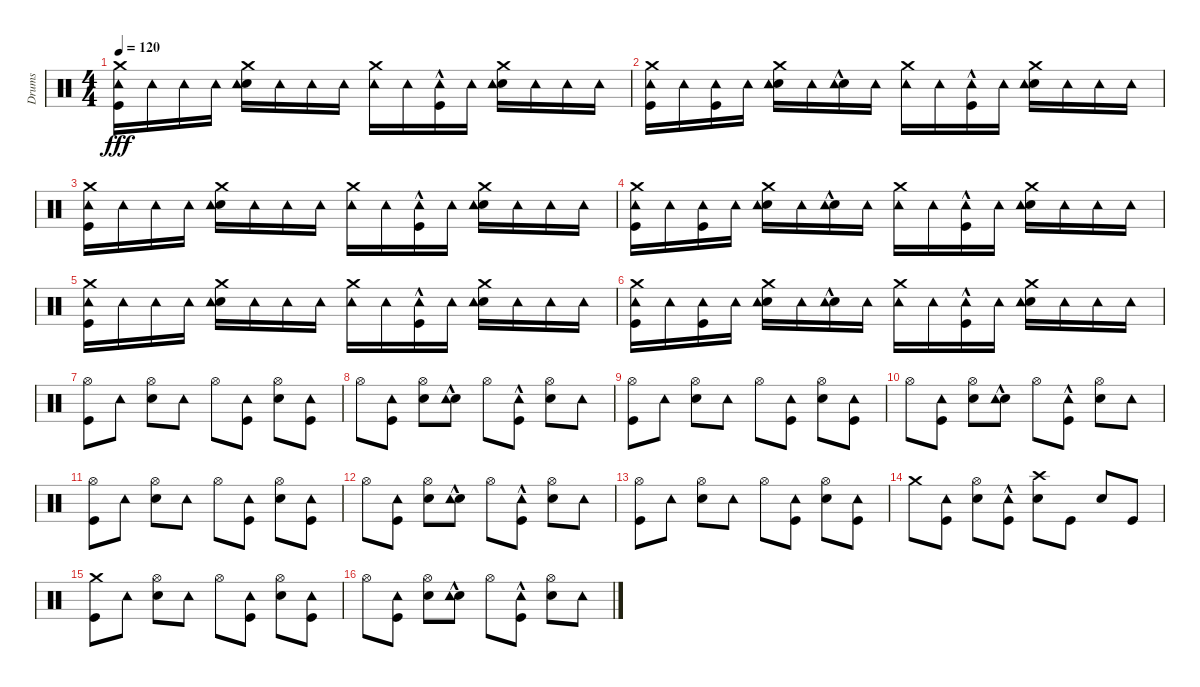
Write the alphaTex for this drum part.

\track ("Drums" "Drums") {instrument percussion}
\staff {score}
\articulation defaults
\ts (4 4)
\tempo 120
\clef neutral
\ks c
("Kick (hit)" "Tambourine (hit)" "Crash medium (hit)").16{dy fff} "Tambourine (hit)".16 "Tambourine (hit)".16 "Tambourine (hit)".16 ("Snare (hit) 2" "Tambourine (hit)" "Crash medium (hit)").16 "Tambourine (hit)".16 "Tambourine (hit)".16 "Tambourine (hit)".16 ("Tambourine (hit)" "Crash medium (hit)").16 "Tambourine (hit)".16 ("Kick (hit)"{hac} "Tambourine (hit)").16 "Tambourine (hit)".16 ("Snare (hit) 2" "Tambourine (hit)" "Crash medium (hit)").16 "Tambourine (hit)".16 "Tambourine (hit)".16 "Tambourine (hit)".16 |
("Kick (hit)" "Tambourine (hit)" "Crash medium (hit)").16 "Tambourine (hit)".16 ("Kick (hit)" "Tambourine (hit)").16 "Tambourine (hit)".16 ("Snare (hit) 2" "Tambourine (hit)" "Crash medium (hit)").16 "Tambourine (hit)".16 ("Snare (hit) 2"{hac} "Tambourine (hit)").16 "Tambourine (hit)".16 ("Tambourine (hit)" "Crash medium (hit)").16 "Tambourine (hit)".16 ("Kick (hit)"{hac} "Tambourine (hit)").16 "Tambourine (hit)".16 ("Snare (hit) 2" "Tambourine (hit)" "Crash medium (hit)").16 "Tambourine (hit)".16 "Tambourine (hit)".16 "Tambourine (hit)".16 |
("Kick (hit)" "Tambourine (hit)" "Crash medium (hit)").16 "Tambourine (hit)".16 "Tambourine (hit)".16 "Tambourine (hit)".16 ("Snare (hit) 2" "Tambourine (hit)" "Crash medium (hit)").16 "Tambourine (hit)".16 "Tambourine (hit)".16 "Tambourine (hit)".16 ("Tambourine (hit)" "Crash medium (hit)").16 "Tambourine (hit)".16 ("Kick (hit)"{hac} "Tambourine (hit)").16 "Tambourine (hit)".16 ("Snare (hit) 2" "Tambourine (hit)" "Crash medium (hit)").16 "Tambourine (hit)".16 "Tambourine (hit)".16 "Tambourine (hit)".16 |
("Kick (hit)" "Tambourine (hit)" "Crash medium (hit)").16 "Tambourine (hit)".16 ("Kick (hit)" "Tambourine (hit)").16 "Tambourine (hit)".16 ("Snare (hit) 2" "Tambourine (hit)" "Crash medium (hit)").16 "Tambourine (hit)".16 ("Snare (hit) 2"{hac} "Tambourine (hit)").16 "Tambourine (hit)".16 ("Tambourine (hit)" "Crash medium (hit)").16 "Tambourine (hit)".16 ("Kick (hit)"{hac} "Tambourine (hit)").16 "Tambourine (hit)".16 ("Snare (hit) 2" "Tambourine (hit)" "Crash medium (hit)").16 "Tambourine (hit)".16 "Tambourine (hit)".16 "Tambourine (hit)".16 |
("Kick (hit)" "Tambourine (hit)" "Crash medium (hit)").16 "Tambourine (hit)".16 "Tambourine (hit)".16 "Tambourine (hit)".16 ("Snare (hit) 2" "Tambourine (hit)" "Crash medium (hit)").16 "Tambourine (hit)".16 "Tambourine (hit)".16 "Tambourine (hit)".16 ("Tambourine (hit)" "Crash medium (hit)").16 "Tambourine (hit)".16 ("Kick (hit)"{hac} "Tambourine (hit)").16 "Tambourine (hit)".16 ("Snare (hit) 2" "Tambourine (hit)" "Crash medium (hit)").16 "Tambourine (hit)".16 "Tambourine (hit)".16 "Tambourine (hit)".16 |
("Kick (hit)" "Tambourine (hit)" "Crash medium (hit)").16 "Tambourine (hit)".16 ("Kick (hit)" "Tambourine (hit)").16 "Tambourine (hit)".16 ("Snare (hit) 2" "Tambourine (hit)" "Crash medium (hit)").16 "Tambourine (hit)".16 ("Snare (hit) 2"{hac} "Tambourine (hit)").16 "Tambourine (hit)".16 ("Tambourine (hit)" "Crash medium (hit)").16 "Tambourine (hit)".16 ("Kick (hit)"{hac} "Tambourine (hit)").16 "Tambourine (hit)".16 ("Snare (hit) 2" "Tambourine (hit)" "Crash medium (hit)").16 "Tambourine (hit)".16 "Tambourine (hit)".16 "Tambourine (hit)".16 |
("Kick (hit)" "Hi-Hat (open)").8 "Tambourine (hit)".8 ("Snare (hit) 2" "Hi-Hat (open)").8 "Tambourine (hit)".8 "Hi-Hat (open)".8 ("Kick (hit)" "Tambourine (hit)").8 ("Snare (hit) 2" "Hi-Hat (open)").8 ("Kick (hit)" "Tambourine (hit)").8 |
"Hi-Hat (open)".8 ("Kick (hit)" "Tambourine (hit)").8 ("Snare (hit) 2" "Hi-Hat (open)").8 ("Snare (hit) 2"{hac} "Tambourine (hit)").8 "Hi-Hat (open)".8 ("Kick (hit)"{hac} "Tambourine (hit)").8 ("Snare (hit) 2" "Hi-Hat (open)").8 "Tambourine (hit)".8 |
("Kick (hit)" "Hi-Hat (open)").8 "Tambourine (hit)".8 ("Snare (hit) 2" "Hi-Hat (open)").8 "Tambourine (hit)".8 "Hi-Hat (open)".8 ("Kick (hit)" "Tambourine (hit)").8 ("Snare (hit) 2" "Hi-Hat (open)").8 ("Kick (hit)" "Tambourine (hit)").8 |
"Hi-Hat (open)".8 ("Kick (hit)" "Tambourine (hit)").8 ("Snare (hit) 2" "Hi-Hat (open)").8 ("Snare (hit) 2"{hac} "Tambourine (hit)").8 "Hi-Hat (open)".8 ("Kick (hit)"{hac} "Tambourine (hit)").8 ("Snare (hit) 2" "Hi-Hat (open)").8 "Tambourine (hit)".8 |
("Kick (hit)" "Hi-Hat (open)").8 "Tambourine (hit)".8 ("Snare (hit) 2" "Hi-Hat (open)").8 "Tambourine (hit)".8 "Hi-Hat (open)".8 ("Kick (hit)" "Tambourine (hit)").8 ("Snare (hit) 2" "Hi-Hat (open)").8 ("Kick (hit)" "Tambourine (hit)").8 |
"Hi-Hat (open)".8 ("Kick (hit)" "Tambourine (hit)").8 ("Snare (hit) 2" "Hi-Hat (open)").8 ("Snare (hit) 2"{hac} "Tambourine (hit)").8 "Hi-Hat (open)".8 ("Kick (hit)"{hac} "Tambourine (hit)").8 ("Snare (hit) 2" "Hi-Hat (open)").8 "Tambourine (hit)".8 |
("Kick (hit)" "Hi-Hat (open)").8 "Tambourine (hit)".8 ("Snare (hit) 2" "Hi-Hat (open)").8 "Tambourine (hit)".8 "Hi-Hat (open)".8 ("Kick (hit)" "Tambourine (hit)").8 ("Snare (hit) 2" "Hi-Hat (open)").8 ("Kick (hit)" "Tambourine (hit)").8 |
"Crash medium (hit)".8 ("Kick (hit)" "Tambourine (hit)").8 ("Snare (hit) 2" "Hi-Hat (open)").8 ("Kick (hit)" "Tambourine (hit)"{hac}).8 ("Snare (hit) 2" "Crash high (hit)").8 "Kick (hit)".8 "Snare (hit) 2".8 "Kick (hit)".8 |
("Kick (hit)" "Crash medium (hit)").8 "Tambourine (hit)".8 ("Snare (hit) 2" "Hi-Hat (open)").8 "Tambourine (hit)".8 "Hi-Hat (open)".8 ("Kick (hit)" "Tambourine (hit)").8 ("Snare (hit) 2" "Hi-Hat (open)").8 ("Kick (hit)" "Tambourine (hit)").8 |
"Hi-Hat (open)".8 ("Kick (hit)" "Tambourine (hit)").8 ("Snare (hit) 2" "Hi-Hat (open)").8 ("Snare (hit) 2"{hac} "Tambourine (hit)").8 "Hi-Hat (open)".8 ("Kick (hit)"{hac} "Tambourine (hit)").8 ("Snare (hit) 2" "Hi-Hat (open)").8 "Tambourine (hit)".8
